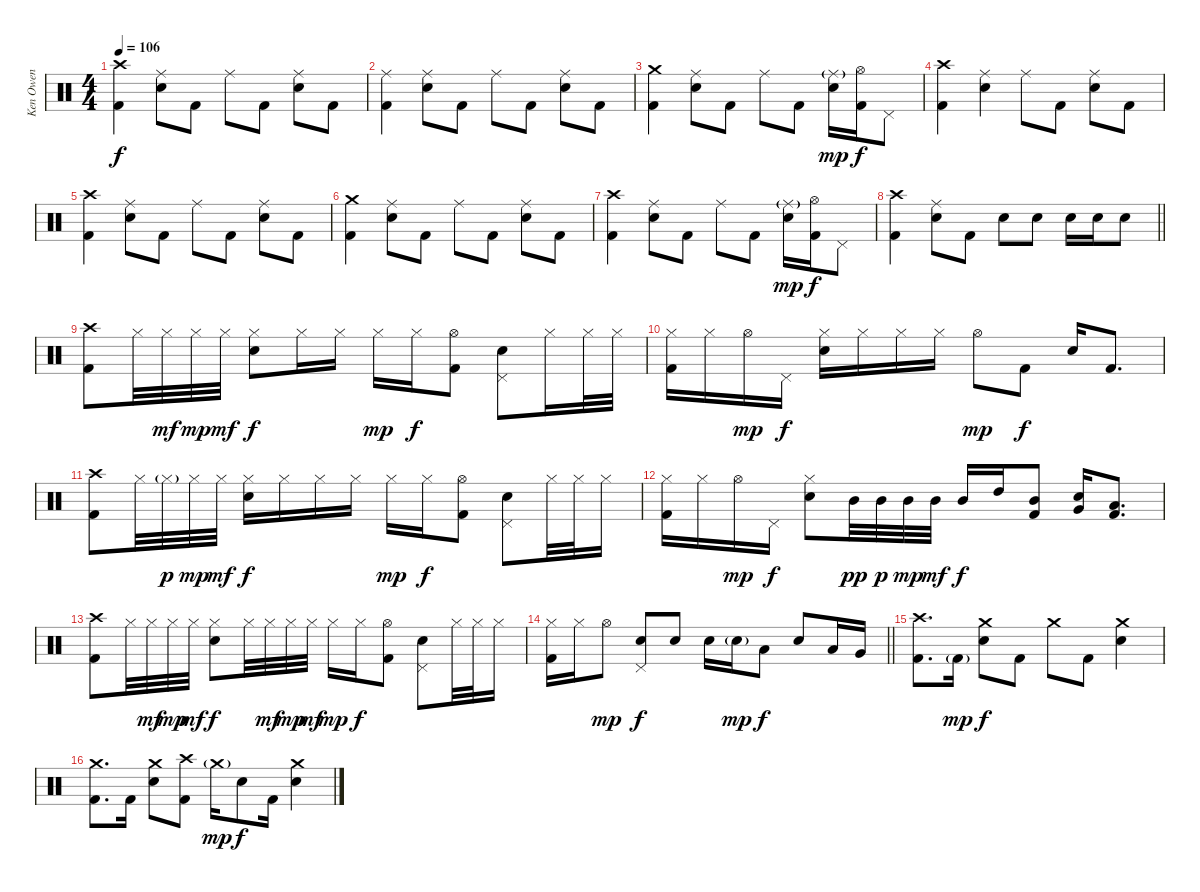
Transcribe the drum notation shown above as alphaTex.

\track ("Ken Owen" "Ken Owen") {instrument percussion}
\staff {score}
\articulation defaults
\ts (4 4)
\section ("" "")
\tempo 106
\clef neutral
\ks c
("Crash high (hit)" "Kick (hit) 2").4{dy f} ("Ride (middle)" "Electric Snare (hit)").8 "Kick (hit) 2".8 "Ride (middle)".8 "Kick (hit) 2".8 ("Ride (middle)" "Electric Snare (hit)").8 "Kick (hit) 2".8 |
("Ride (middle)" "Kick (hit) 2").4 ("Ride (middle)" "Electric Snare (hit)").8 "Kick (hit) 2".8 "Ride (middle)".8 "Kick (hit) 2".8 ("Ride (middle)" "Electric Snare (hit)").8 "Kick (hit) 2".8 |
("Crash medium (hit)" "Kick (hit) 2").4 ("Ride (middle)" "Electric Snare (hit)").8 "Kick (hit) 2".8 "Ride (middle)".8 "Kick (hit) 2".8 ("Ride (middle)"{g} "Electric Snare (hit)").16{dy mp} ("Hi-Hat (open)" "Kick (hit) 2").16{dy f} "Pedal Hi-Hat (hit)".8 |
("Crash high (hit)" "Kick (hit) 2").4 ("Ride (middle)" "Electric Snare (hit)").4 "Ride (middle)".8 "Kick (hit) 2".8 ("Ride (middle)" "Electric Snare (hit)").8 "Kick (hit) 2".8 |
("Crash high (hit)" "Kick (hit) 2").4 ("Ride (middle)" "Electric Snare (hit)").8 "Kick (hit) 2".8 "Ride (middle)".8 "Kick (hit) 2".8 ("Ride (middle)" "Electric Snare (hit)").8 "Kick (hit) 2".8 |
("Crash medium (hit)" "Kick (hit) 2").4 ("Ride (middle)" "Electric Snare (hit)").8 "Kick (hit) 2".8 "Ride (middle)".8 "Kick (hit) 2".8 ("Ride (middle)" "Electric Snare (hit)").8 "Kick (hit) 2".8 |
("Crash high (hit)" "Kick (hit) 2").4 ("Ride (middle)" "Electric Snare (hit)").8 "Kick (hit) 2".8 "Ride (middle)".8 "Kick (hit) 2".8 ("Ride (middle)"{g} "Electric Snare (hit)").16{dy mp} ("Hi-Hat (open)" "Kick (hit) 2").16{dy f} "Pedal Hi-Hat (hit)".8 |
\barLineRight lightlight
("Crash high (hit)" "Kick (hit) 2").4 ("Ride (middle)" "Electric Snare (hit)").8 "Kick (hit) 2".8 "Electric Snare (hit)".8 "Electric Snare (hit)".8 "Electric Snare (hit)".16 "Electric Snare (hit)".16 "Electric Snare (hit)".8 |
\section ("" "")
("Crash high (hit)" "Kick (hit) 2").8 "Hi-Hat (closed)".32 "Hi-Hat (closed)".32{dy mf} "Hi-Hat (closed)".32{dy mp} "Hi-Hat (closed)".32{dy mf} ("Hi-Hat (closed)" "Electric Snare (hit)").8{dy f} "Hi-Hat (closed)".16 "Hi-Hat (closed)".16 "Hi-Hat (closed)".16{dy mp} "Hi-Hat (closed)".16{dy f} ("Hi-Hat (open)" "Kick (hit) 2").8 ("Pedal Hi-Hat (hit)" "Electric Snare (hit)").8 "Hi-Hat (closed)".16 "Hi-Hat (closed)".32 "Hi-Hat (closed)".32 |
("Hi-Hat (closed)" "Kick (hit) 2").16 "Hi-Hat (closed)".16 "Hi-Hat (open)".16{dy mp} "Pedal Hi-Hat (hit)".16{dy f} ("Hi-Hat (closed)" "Electric Snare (hit)").16 "Hi-Hat (closed)".16 "Hi-Hat (closed)".16 "Hi-Hat (closed)".16 "Hi-Hat (open)".8{dy mp} "Kick (hit) 2".8{dy f} "Electric Snare (hit)".16 "Kick (hit) 2".8{d} |
("Crash high (hit)" "Kick (hit) 2").8 "Hi-Hat (closed)".32 "Hi-Hat (closed)"{g}.32{dy p} "Hi-Hat (closed)".32{dy mp} "Hi-Hat (closed)".32{dy mf} ("Hi-Hat (closed)" "Electric Snare (hit)").16{dy f} "Hi-Hat (closed)".16 "Hi-Hat (closed)".16 "Hi-Hat (closed)".16 "Hi-Hat (closed)".16{dy mp} "Hi-Hat (closed)".16{dy f} ("Hi-Hat (open)" "Kick (hit) 2").8 ("Pedal Hi-Hat (hit)" "Electric Snare (hit)").8 "Hi-Hat (closed)".32 "Hi-Hat (closed)".32 "Hi-Hat (closed)".16 |
("Hi-Hat (closed)" "Kick (hit) 2").16 "Hi-Hat (closed)".16 "Hi-Hat (open)".16{dy mp} "Pedal Hi-Hat (hit)".16{dy f} ("Hi-Hat (closed)" "Electric Snare (hit)").8 "Mid Tom (hit)".32{dy pp} "Mid Tom (hit)".32{dy p} "Mid Tom (hit)".32{dy mp} "Mid Tom (hit)".32{dy mf} "Mid Tom (hit)".16{dy f} "High Tom (hit)".16 ("Mid Tom (hit)" "Kick (hit) 2").8 ("Electric Snare (hit)" "Very Low Tom (hit)").16 ("Low Floor Tom (hit)" "Kick (hit) 2").8{d} |
("Crash high (hit)" "Kick (hit) 2").8 "Hi-Hat (closed)".32 "Hi-Hat (closed)".32{dy mf} "Hi-Hat (closed)".32{dy mp} "Hi-Hat (closed)".32{dy mf} ("Hi-Hat (closed)" "Electric Snare (hit)").8{dy f} "Hi-Hat (closed)".32 "Hi-Hat (closed)".32{dy mf} "Hi-Hat (closed)".32{dy mp} "Hi-Hat (closed)".32{dy mf} "Hi-Hat (closed)".16{dy mp} "Hi-Hat (closed)".16{dy f} ("Hi-Hat (open)" "Kick (hit) 2").8 ("Pedal Hi-Hat (hit)" "Electric Snare (hit)").8 "Hi-Hat (closed)".32 "Hi-Hat (closed)".32 "Hi-Hat (closed)".16 |
\barLineRight lightlight
("Hi-Hat (closed)" "Kick (hit) 2").16 "Hi-Hat (closed)".16 "Hi-Hat (open)".8{dy mp} ("Pedal Hi-Hat (hit)" "Electric Snare (hit)").8{dy f} "Electric Snare (hit)".8 "Electric Snare (hit)".16 "Electric Snare (hit)"{g}.16{dy mp} "Low Tom (hit)".8{dy f} "Electric Snare (hit)".8 "Low Tom (hit)".16 "Very Low Tom (hit)".16 |
\section ("" "")
("Crash high (hit)" "Kick (hit) 2").8{d} "Kick (hit) 2"{g}.16{dy mp} ("Crash medium (hit)" "Electric Snare (hit)").8{dy f} "Kick (hit) 2".8 "Crash medium (hit)".8 "Kick (hit) 2".8 ("Crash medium (hit)" "Electric Snare (hit)").4 |
("Crash medium (hit)" "Kick (hit) 2").8{d} "Kick (hit) 2".16 ("Crash medium (hit)" "Electric Snare (hit)").8 ("Crash high (hit)" "Kick (hit) 2").8 "Crash medium (hit)"{g}.16{dy mp} "Electric Snare (hit)".8{dy f} "Kick (hit) 2".16 ("Crash medium (hit)" "Electric Snare (hit)").4
